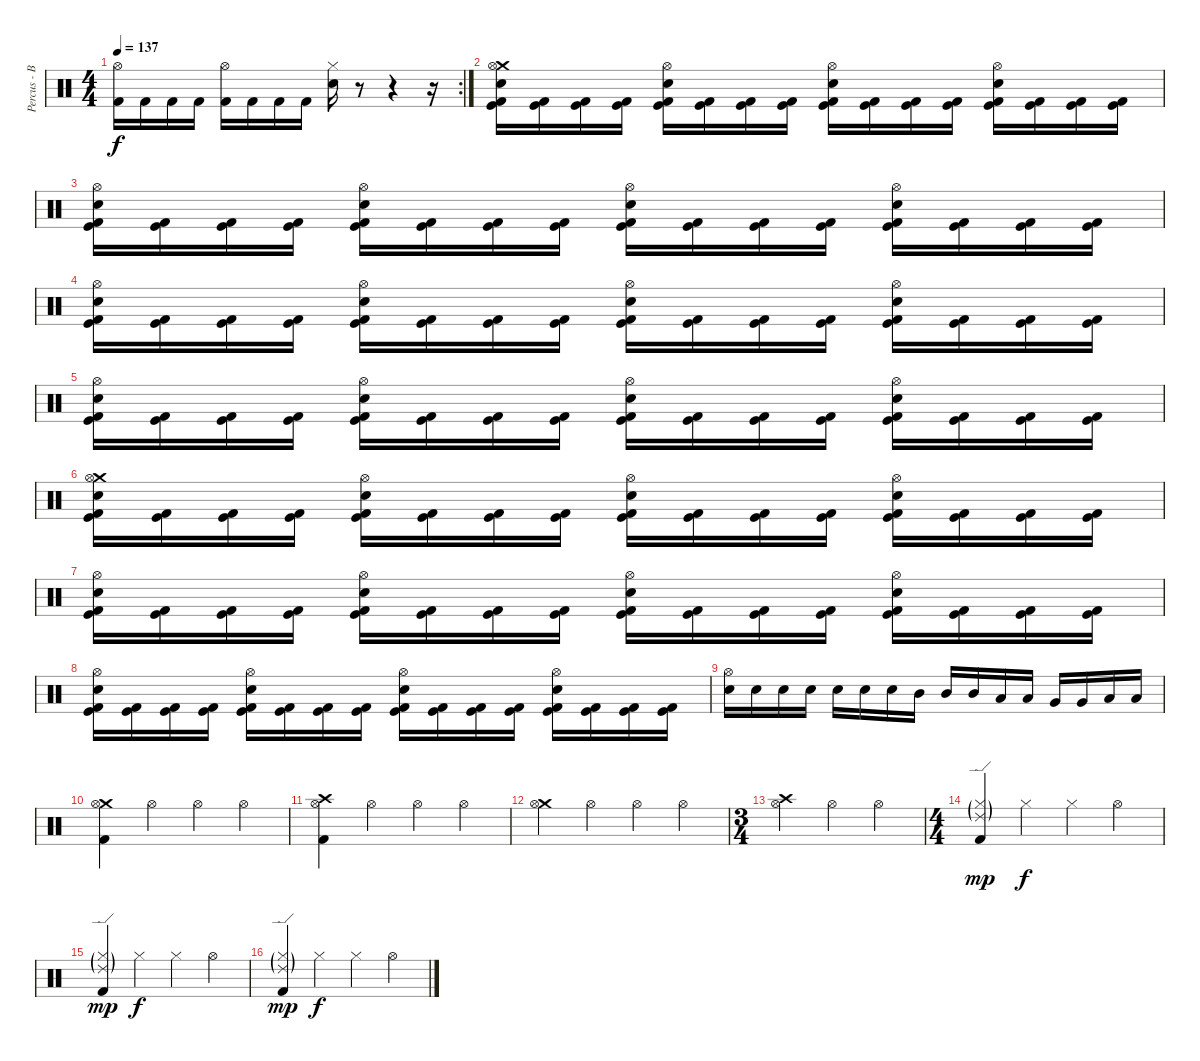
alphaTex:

\track ("Percus - Brice" "Percus - B") {instrument percussion}
\staff {score}
\articulation defaults
\rc 2
\ts (4 4)
\tempo 137
\clef neutral
\ks c
("Hi-Hat (open)" "Kick (hit) 2").16{dy f} "Kick (hit) 2".16 "Kick (hit) 2".16 "Kick (hit) 2".16 ("Hi-Hat (open)" "Kick (hit) 2").16 "Kick (hit) 2".16 "Kick (hit) 2".16 "Kick (hit) 2".16 ("Hi-Hat (closed)" "Electric Snare (hit)").16 r.8 r.4 r.16 |
("Crash medium (hit)" "Kick (hit)" "Hi-Hat (open)" "Electric Snare (hit)" "Kick (hit) 2").16 ("Kick (hit)" "Kick (hit) 2").16 ("Kick (hit)" "Kick (hit) 2").16 ("Kick (hit)" "Kick (hit) 2").16 ("Kick (hit)" "Hi-Hat (open)" "Electric Snare (hit)" "Kick (hit) 2").16 ("Kick (hit)" "Kick (hit) 2").16 ("Kick (hit)" "Kick (hit) 2").16 ("Kick (hit)" "Kick (hit) 2").16 ("Kick (hit)" "Hi-Hat (open)" "Electric Snare (hit)" "Kick (hit) 2").16 ("Kick (hit)" "Kick (hit) 2").16 ("Kick (hit)" "Kick (hit) 2").16 ("Kick (hit)" "Kick (hit) 2").16 ("Kick (hit)" "Hi-Hat (open)" "Electric Snare (hit)" "Kick (hit) 2").16 ("Kick (hit)" "Kick (hit) 2").16 ("Kick (hit)" "Kick (hit) 2").16 ("Kick (hit)" "Kick (hit) 2").16 |
("Kick (hit)" "Hi-Hat (open)" "Electric Snare (hit)" "Kick (hit) 2").16 ("Kick (hit)" "Kick (hit) 2").16 ("Kick (hit)" "Kick (hit) 2").16 ("Kick (hit)" "Kick (hit) 2").16 ("Kick (hit)" "Hi-Hat (open)" "Electric Snare (hit)" "Kick (hit) 2").16 ("Kick (hit)" "Kick (hit) 2").16 ("Kick (hit)" "Kick (hit) 2").16 ("Kick (hit)" "Kick (hit) 2").16 ("Kick (hit)" "Hi-Hat (open)" "Electric Snare (hit)" "Kick (hit) 2").16 ("Kick (hit)" "Kick (hit) 2").16 ("Kick (hit)" "Kick (hit) 2").16 ("Kick (hit)" "Kick (hit) 2").16 ("Kick (hit)" "Hi-Hat (open)" "Electric Snare (hit)" "Kick (hit) 2").16 ("Kick (hit)" "Kick (hit) 2").16 ("Kick (hit)" "Kick (hit) 2").16 ("Kick (hit)" "Kick (hit) 2").16 |
("Kick (hit)" "Hi-Hat (open)" "Electric Snare (hit)" "Kick (hit) 2").16 ("Kick (hit)" "Kick (hit) 2").16 ("Kick (hit)" "Kick (hit) 2").16 ("Kick (hit)" "Kick (hit) 2").16 ("Kick (hit)" "Hi-Hat (open)" "Electric Snare (hit)" "Kick (hit) 2").16 ("Kick (hit)" "Kick (hit) 2").16 ("Kick (hit)" "Kick (hit) 2").16 ("Kick (hit)" "Kick (hit) 2").16 ("Kick (hit)" "Hi-Hat (open)" "Electric Snare (hit)" "Kick (hit) 2").16 ("Kick (hit)" "Kick (hit) 2").16 ("Kick (hit)" "Kick (hit) 2").16 ("Kick (hit)" "Kick (hit) 2").16 ("Kick (hit)" "Hi-Hat (open)" "Electric Snare (hit)" "Kick (hit) 2").16 ("Kick (hit)" "Kick (hit) 2").16 ("Kick (hit)" "Kick (hit) 2").16 ("Kick (hit)" "Kick (hit) 2").16 |
("Kick (hit)" "Hi-Hat (open)" "Electric Snare (hit)" "Kick (hit) 2").16 ("Kick (hit)" "Kick (hit) 2").16 ("Kick (hit)" "Kick (hit) 2").16 ("Kick (hit)" "Kick (hit) 2").16 ("Kick (hit)" "Hi-Hat (open)" "Electric Snare (hit)" "Kick (hit) 2").16 ("Kick (hit)" "Kick (hit) 2").16 ("Kick (hit)" "Kick (hit) 2").16 ("Kick (hit)" "Kick (hit) 2").16 ("Kick (hit)" "Hi-Hat (open)" "Electric Snare (hit)" "Kick (hit) 2").16 ("Kick (hit)" "Kick (hit) 2").16 ("Kick (hit)" "Kick (hit) 2").16 ("Kick (hit)" "Kick (hit) 2").16 ("Kick (hit)" "Hi-Hat (open)" "Electric Snare (hit)" "Kick (hit) 2").16 ("Kick (hit)" "Kick (hit) 2").16 ("Kick (hit)" "Kick (hit) 2").16 ("Kick (hit)" "Kick (hit) 2").16 |
("Crash medium (hit)" "Kick (hit)" "Hi-Hat (open)" "Electric Snare (hit)" "Kick (hit) 2").16 ("Kick (hit)" "Kick (hit) 2").16 ("Kick (hit)" "Kick (hit) 2").16 ("Kick (hit)" "Kick (hit) 2").16 ("Kick (hit)" "Hi-Hat (open)" "Electric Snare (hit)" "Kick (hit) 2").16 ("Kick (hit)" "Kick (hit) 2").16 ("Kick (hit)" "Kick (hit) 2").16 ("Kick (hit)" "Kick (hit) 2").16 ("Kick (hit)" "Hi-Hat (open)" "Electric Snare (hit)" "Kick (hit) 2").16 ("Kick (hit)" "Kick (hit) 2").16 ("Kick (hit)" "Kick (hit) 2").16 ("Kick (hit)" "Kick (hit) 2").16 ("Kick (hit)" "Hi-Hat (open)" "Electric Snare (hit)" "Kick (hit) 2").16 ("Kick (hit)" "Kick (hit) 2").16 ("Kick (hit)" "Kick (hit) 2").16 ("Kick (hit)" "Kick (hit) 2").16 |
("Kick (hit)" "Hi-Hat (open)" "Electric Snare (hit)" "Kick (hit) 2").16 ("Kick (hit)" "Kick (hit) 2").16 ("Kick (hit)" "Kick (hit) 2").16 ("Kick (hit)" "Kick (hit) 2").16 ("Kick (hit)" "Hi-Hat (open)" "Electric Snare (hit)" "Kick (hit) 2").16 ("Kick (hit)" "Kick (hit) 2").16 ("Kick (hit)" "Kick (hit) 2").16 ("Kick (hit)" "Kick (hit) 2").16 ("Kick (hit)" "Hi-Hat (open)" "Electric Snare (hit)" "Kick (hit) 2").16 ("Kick (hit)" "Kick (hit) 2").16 ("Kick (hit)" "Kick (hit) 2").16 ("Kick (hit)" "Kick (hit) 2").16 ("Kick (hit)" "Hi-Hat (open)" "Electric Snare (hit)" "Kick (hit) 2").16 ("Kick (hit)" "Kick (hit) 2").16 ("Kick (hit)" "Kick (hit) 2").16 ("Kick (hit)" "Kick (hit) 2").16 |
("Kick (hit)" "Hi-Hat (open)" "Electric Snare (hit)" "Kick (hit) 2").16 ("Kick (hit)" "Kick (hit) 2").16 ("Kick (hit)" "Kick (hit) 2").16 ("Kick (hit)" "Kick (hit) 2").16 ("Kick (hit)" "Hi-Hat (open)" "Electric Snare (hit)" "Kick (hit) 2").16 ("Kick (hit)" "Kick (hit) 2").16 ("Kick (hit)" "Kick (hit) 2").16 ("Kick (hit)" "Kick (hit) 2").16 ("Kick (hit)" "Hi-Hat (open)" "Electric Snare (hit)" "Kick (hit) 2").16 ("Kick (hit)" "Kick (hit) 2").16 ("Kick (hit)" "Kick (hit) 2").16 ("Kick (hit)" "Kick (hit) 2").16 ("Kick (hit)" "Hi-Hat (open)" "Electric Snare (hit)" "Kick (hit) 2").16 ("Kick (hit)" "Kick (hit) 2").16 ("Kick (hit)" "Kick (hit) 2").16 ("Kick (hit)" "Kick (hit) 2").16 |
("Hi-Hat (open)" "Electric Snare (hit)").16 "Electric Snare (hit)".16 "Electric Snare (hit)".16 "Electric Snare (hit)".16 "Electric Snare (hit)".16 "Electric Snare (hit)".16 "Electric Snare (hit)".16 "Mid Tom (hit)".16 "Mid Tom (hit)".16 "Mid Tom (hit)".16 "Low Tom (hit)".16 "Low Tom (hit)".16 "Very Low Tom (hit)".16 "Very Low Tom (hit)".16 "Low Floor Tom (hit)".16 "Low Floor Tom (hit)".16 |
("Crash medium (hit)" "Kick (hit) 2" "Hi-Hat (open)").4 "Hi-Hat (open)".4 "Hi-Hat (open)".4 "Hi-Hat (open)".4 |
("Crash high (hit)" "Kick (hit) 2" "Hi-Hat (open)").4 "Hi-Hat (open)".4 "Hi-Hat (open)".4 "Hi-Hat (open)".4 |
("Crash medium (hit)" "Hi-Hat (open)").4 "Hi-Hat (open)".4 "Hi-Hat (open)".4 "Hi-Hat (open)".4 |
\ts (3 4)
("Crash high (hit)" "Hi-Hat (open)").4 "Hi-Hat (open)".4 "Hi-Hat (open)".4 |
\ts (4 4)
("Ride (edge) 2"{g} "Hi-Hat (closed)"{g} "Kick (hit) 2").4{dy mp} "Hi-Hat (closed)".4{dy f} "Hi-Hat (closed)".4 "Hi-Hat (open)".4 |
("Ride (edge) 2"{g} "Hi-Hat (closed)"{g} "Kick (hit) 2").4{dy mp} "Hi-Hat (closed)".4{dy f} "Hi-Hat (closed)".4 "Hi-Hat (open)".4 |
("Ride (edge) 2"{g} "Hi-Hat (closed)"{g} "Kick (hit) 2").4{dy mp} "Hi-Hat (closed)".4{dy f} "Hi-Hat (closed)".4 "Hi-Hat (open)".4
